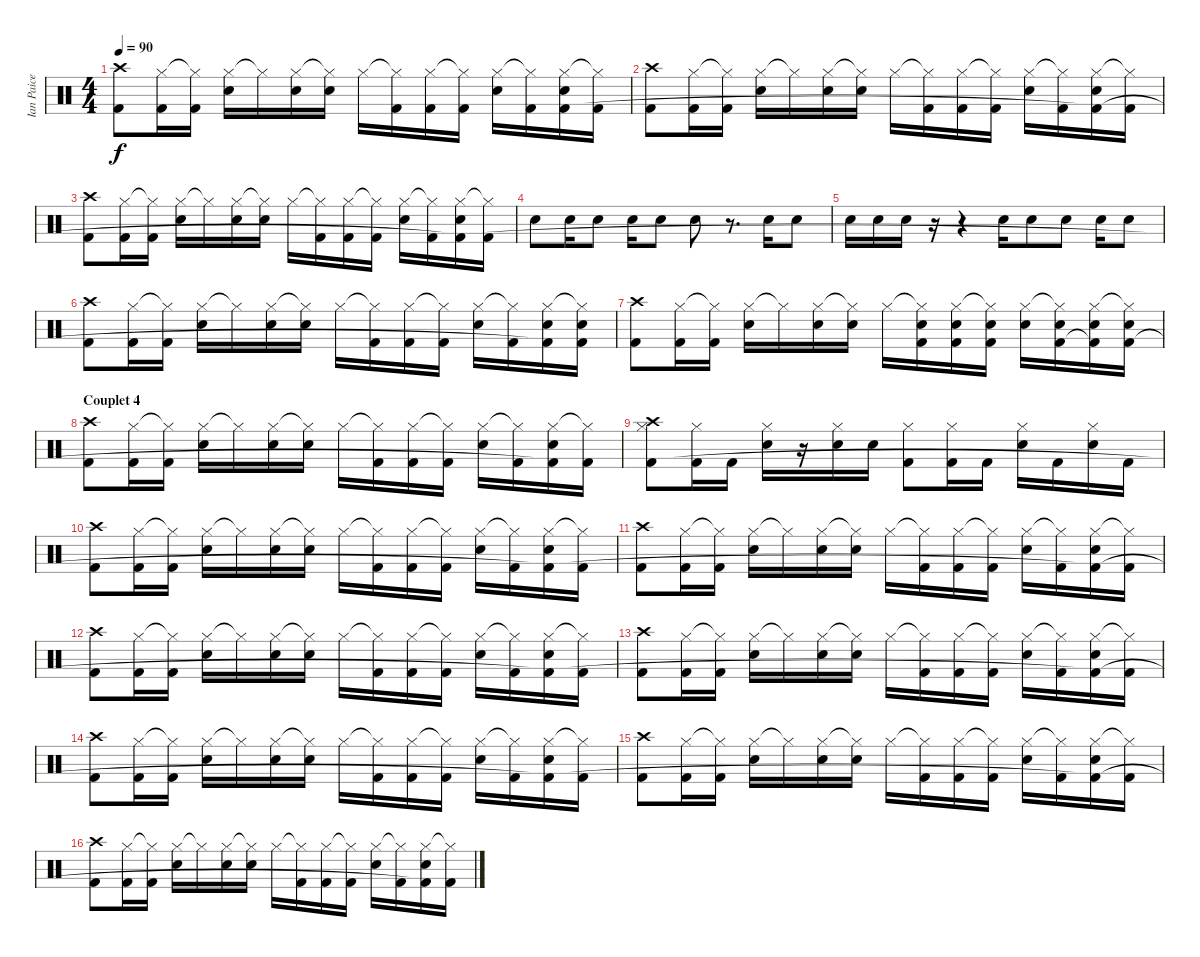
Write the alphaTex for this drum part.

\track ("Ian Paice" "Ian Paice") {instrument percussion}
\staff {score}
\articulation defaults
\ts (4 4)
\tempo 90
\clef neutral
\ks c
("Crash high (hit)" "Kick (hit) 2").8{dy f} ("Hi-Hat (closed)" "Kick (hit) 2").16 ("Hi-Hat (closed)"{t} "Kick (hit) 2").16 ("Hi-Hat (closed)" "Snare (hit) 2").16 "Hi-Hat (closed)"{t}.16 ("Hi-Hat (closed)" "Snare (hit) 2").16 ("Hi-Hat (closed)"{t} "Snare (hit) 2").16 "Hi-Hat (closed)".16 ("Hi-Hat (closed)"{t} "Kick (hit) 2").16 ("Hi-Hat (closed)" "Kick (hit) 2").16 ("Hi-Hat (closed)"{t} "Kick (hit) 2").16 ("Hi-Hat (closed)" "Snare (hit) 2").16 ("Hi-Hat (closed)"{t} "Kick (hit) 2").16 ("Hi-Hat (closed)" "Snare (hit) 2" "Kick (hit) 2"{t}).16 ("Hi-Hat (closed)"{t} "Kick (hit) 2").16 |
("Crash high (hit)" "Kick (hit) 2").8 ("Hi-Hat (closed)" "Kick (hit) 2").16 ("Hi-Hat (closed)"{t} "Kick (hit) 2").16 ("Hi-Hat (closed)" "Snare (hit) 2").16 "Hi-Hat (closed)"{t}.16 ("Hi-Hat (closed)" "Snare (hit) 2").16 ("Hi-Hat (closed)"{t} "Snare (hit) 2").16 "Hi-Hat (closed)".16 ("Hi-Hat (closed)"{t} "Kick (hit) 2").16 ("Hi-Hat (closed)" "Kick (hit) 2").16 ("Hi-Hat (closed)"{t} "Kick (hit) 2").16 ("Hi-Hat (closed)" "Snare (hit) 2").16 ("Hi-Hat (closed)"{t} "Kick (hit) 2").16 ("Hi-Hat (closed)" "Snare (hit) 2" "Kick (hit) 2"{t}).16 ("Hi-Hat (closed)"{t} "Kick (hit) 2").16 |
("Crash high (hit)" "Kick (hit) 2").8 ("Hi-Hat (closed)" "Kick (hit) 2").16 ("Hi-Hat (closed)"{t} "Kick (hit) 2").16 ("Hi-Hat (closed)" "Snare (hit) 2").16 "Hi-Hat (closed)"{t}.16 ("Hi-Hat (closed)" "Snare (hit) 2").16 ("Hi-Hat (closed)"{t} "Snare (hit) 2").16 "Hi-Hat (closed)".16 ("Hi-Hat (closed)"{t} "Kick (hit) 2").16 ("Hi-Hat (closed)" "Kick (hit) 2").16 ("Hi-Hat (closed)"{t} "Kick (hit) 2").16 ("Hi-Hat (closed)" "Snare (hit) 2").16 ("Hi-Hat (closed)"{t} "Kick (hit) 2").16 ("Hi-Hat (closed)" "Snare (hit) 2" "Kick (hit) 2"{t}).16 ("Hi-Hat (closed)"{t} "Kick (hit) 2").16 |
"Snare (hit) 2".8 "Snare (hit) 2".16 "Snare (hit) 2".8 "Snare (hit) 2".16 "Snare (hit) 2".8 "Snare (hit) 2".8 r.8{d} "Snare (hit) 2".16 "Snare (hit) 2".8 |
"Snare (hit) 2".16 "Snare (hit) 2".16 "Snare (hit) 2".16 r.16 r.4 "Snare (hit) 2".16 "Snare (hit) 2".8 "Snare (hit) 2".8 "Snare (hit) 2".16 "Snare (hit) 2".8 |
("Crash high (hit)" "Kick (hit) 2").8 ("Hi-Hat (closed)" "Kick (hit) 2").16 ("Hi-Hat (closed)"{t} "Kick (hit) 2").16 ("Hi-Hat (closed)" "Snare (hit) 2").16 "Hi-Hat (closed)"{t}.16 ("Hi-Hat (closed)" "Snare (hit) 2").16 ("Hi-Hat (closed)"{t} "Snare (hit) 2").16 "Hi-Hat (closed)".16 ("Hi-Hat (closed)"{t} "Kick (hit) 2").16 ("Hi-Hat (closed)" "Kick (hit) 2").16 ("Hi-Hat (closed)"{t} "Kick (hit) 2").16 ("Hi-Hat (closed)" "Snare (hit) 2").16 ("Hi-Hat (closed)"{t} "Kick (hit) 2").16 ("Hi-Hat (closed)" "Snare (hit) 2" "Kick (hit) 2"{t}).16 ("Hi-Hat (closed)"{t} "Snare (hit) 2" "Kick (hit) 2").16 |
("Crash high (hit)" "Kick (hit) 2").8 ("Hi-Hat (closed)" "Kick (hit) 2").16 ("Hi-Hat (closed)"{t} "Kick (hit) 2").16 ("Hi-Hat (closed)" "Snare (hit) 2").16 "Hi-Hat (closed)"{t}.16 ("Hi-Hat (closed)" "Snare (hit) 2").16 ("Hi-Hat (closed)"{t} "Snare (hit) 2").16 "Hi-Hat (closed)".16 ("Hi-Hat (closed)"{t} "Snare (hit) 2" "Kick (hit) 2").16 ("Hi-Hat (closed)" "Snare (hit) 2" "Kick (hit) 2").16 ("Hi-Hat (closed)"{t} "Snare (hit) 2" "Kick (hit) 2").16 ("Hi-Hat (closed)" "Snare (hit) 2").16 ("Hi-Hat (closed)"{t} "Snare (hit) 2" "Kick (hit) 2").16 ("Hi-Hat (closed)" "Snare (hit) 2" "Kick (hit) 2"{t}).16 ("Hi-Hat (closed)"{t} "Snare (hit) 2" "Kick (hit) 2").16 |
\section ("" "Couplet 4 ")
("Crash high (hit)" "Kick (hit) 2").8 ("Hi-Hat (closed)" "Kick (hit) 2").16 ("Hi-Hat (closed)"{t} "Kick (hit) 2").16 ("Hi-Hat (closed)" "Snare (hit) 2").16 "Hi-Hat (closed)"{t}.16 ("Hi-Hat (closed)" "Snare (hit) 2").16 ("Hi-Hat (closed)"{t} "Snare (hit) 2").16 "Hi-Hat (closed)".16 ("Hi-Hat (closed)"{t} "Kick (hit) 2").16 ("Hi-Hat (closed)" "Kick (hit) 2").16 ("Hi-Hat (closed)"{t} "Kick (hit) 2").16 ("Hi-Hat (closed)" "Snare (hit) 2").16 ("Hi-Hat (closed)"{t} "Kick (hit) 2").16 ("Hi-Hat (closed)" "Snare (hit) 2" "Kick (hit) 2"{t}).16 ("Hi-Hat (closed)"{t} "Kick (hit) 2").16 |
("Hi-Hat (closed)" "Crash high (hit)" "Kick (hit) 2").8 ("Hi-Hat (closed)" "Kick (hit) 2").16 "Kick (hit) 2".16 ("Hi-Hat (closed)" "Snare (hit) 2").16 r.16 ("Hi-Hat (closed)" "Snare (hit) 2").16 "Snare (hit) 2".16 ("Hi-Hat (closed)" "Kick (hit) 2").8 ("Hi-Hat (closed)" "Kick (hit) 2").16 "Kick (hit) 2".16 ("Hi-Hat (closed)" "Snare (hit) 2").16 "Kick (hit) 2".16 ("Hi-Hat (closed)" "Snare (hit) 2").16 "Kick (hit) 2".16 |
("Crash high (hit)" "Kick (hit) 2").8 ("Hi-Hat (closed)" "Kick (hit) 2").16 ("Hi-Hat (closed)"{t} "Kick (hit) 2").16 ("Hi-Hat (closed)" "Snare (hit) 2").16 "Hi-Hat (closed)"{t}.16 ("Hi-Hat (closed)" "Snare (hit) 2").16 ("Hi-Hat (closed)"{t} "Snare (hit) 2").16 "Hi-Hat (closed)".16 ("Hi-Hat (closed)"{t} "Kick (hit) 2").16 ("Hi-Hat (closed)" "Kick (hit) 2").16 ("Hi-Hat (closed)"{t} "Kick (hit) 2").16 ("Hi-Hat (closed)" "Snare (hit) 2").16 ("Hi-Hat (closed)"{t} "Kick (hit) 2").16 ("Hi-Hat (closed)" "Snare (hit) 2" "Kick (hit) 2"{t}).16 ("Hi-Hat (closed)"{t} "Kick (hit) 2").16 |
("Crash high (hit)" "Kick (hit) 2").8 ("Hi-Hat (closed)" "Kick (hit) 2").16 ("Hi-Hat (closed)"{t} "Kick (hit) 2").16 ("Hi-Hat (closed)" "Snare (hit) 2").16 "Hi-Hat (closed)"{t}.16 ("Hi-Hat (closed)" "Snare (hit) 2").16 ("Hi-Hat (closed)"{t} "Snare (hit) 2").16 "Hi-Hat (closed)".16 ("Hi-Hat (closed)"{t} "Kick (hit) 2").16 ("Hi-Hat (closed)" "Kick (hit) 2").16 ("Hi-Hat (closed)"{t} "Kick (hit) 2").16 ("Hi-Hat (closed)" "Snare (hit) 2").16 ("Hi-Hat (closed)"{t} "Kick (hit) 2").16 ("Hi-Hat (closed)" "Snare (hit) 2" "Kick (hit) 2"{t}).16 ("Hi-Hat (closed)"{t} "Kick (hit) 2").16 |
("Crash high (hit)" "Kick (hit) 2").8 ("Hi-Hat (closed)" "Kick (hit) 2").16 ("Hi-Hat (closed)"{t} "Kick (hit) 2").16 ("Hi-Hat (closed)" "Snare (hit) 2").16 "Hi-Hat (closed)"{t}.16 ("Hi-Hat (closed)" "Snare (hit) 2").16 ("Hi-Hat (closed)"{t} "Snare (hit) 2").16 "Hi-Hat (closed)".16 ("Hi-Hat (closed)"{t} "Kick (hit) 2").16 ("Hi-Hat (closed)" "Kick (hit) 2").16 ("Hi-Hat (closed)"{t} "Kick (hit) 2").16 ("Hi-Hat (closed)" "Snare (hit) 2").16 ("Hi-Hat (closed)"{t} "Kick (hit) 2").16 ("Hi-Hat (closed)" "Snare (hit) 2" "Kick (hit) 2"{t}).16 ("Hi-Hat (closed)"{t} "Kick (hit) 2").16 |
("Crash high (hit)" "Kick (hit) 2").8 ("Hi-Hat (closed)" "Kick (hit) 2").16 ("Hi-Hat (closed)"{t} "Kick (hit) 2").16 ("Hi-Hat (closed)" "Snare (hit) 2").16 "Hi-Hat (closed)"{t}.16 ("Hi-Hat (closed)" "Snare (hit) 2").16 ("Hi-Hat (closed)"{t} "Snare (hit) 2").16 "Hi-Hat (closed)".16 ("Hi-Hat (closed)"{t} "Kick (hit) 2").16 ("Hi-Hat (closed)" "Kick (hit) 2").16 ("Hi-Hat (closed)"{t} "Kick (hit) 2").16 ("Hi-Hat (closed)" "Snare (hit) 2").16 ("Hi-Hat (closed)"{t} "Kick (hit) 2").16 ("Hi-Hat (closed)" "Snare (hit) 2" "Kick (hit) 2"{t}).16 ("Hi-Hat (closed)"{t} "Kick (hit) 2").16 |
("Crash high (hit)" "Kick (hit) 2").8 ("Hi-Hat (closed)" "Kick (hit) 2").16 ("Hi-Hat (closed)"{t} "Kick (hit) 2").16 ("Hi-Hat (closed)" "Snare (hit) 2").16 "Hi-Hat (closed)"{t}.16 ("Hi-Hat (closed)" "Snare (hit) 2").16 ("Hi-Hat (closed)"{t} "Snare (hit) 2").16 "Hi-Hat (closed)".16 ("Hi-Hat (closed)"{t} "Kick (hit) 2").16 ("Hi-Hat (closed)" "Kick (hit) 2").16 ("Hi-Hat (closed)"{t} "Kick (hit) 2").16 ("Hi-Hat (closed)" "Snare (hit) 2").16 ("Hi-Hat (closed)"{t} "Kick (hit) 2").16 ("Hi-Hat (closed)" "Snare (hit) 2" "Kick (hit) 2"{t}).16 ("Hi-Hat (closed)"{t} "Kick (hit) 2").16 |
("Crash high (hit)" "Kick (hit) 2").8 ("Hi-Hat (closed)" "Kick (hit) 2").16 ("Hi-Hat (closed)"{t} "Kick (hit) 2").16 ("Hi-Hat (closed)" "Snare (hit) 2").16 "Hi-Hat (closed)"{t}.16 ("Hi-Hat (closed)" "Snare (hit) 2").16 ("Hi-Hat (closed)"{t} "Snare (hit) 2").16 "Hi-Hat (closed)".16 ("Hi-Hat (closed)"{t} "Kick (hit) 2").16 ("Hi-Hat (closed)" "Kick (hit) 2").16 ("Hi-Hat (closed)"{t} "Kick (hit) 2").16 ("Hi-Hat (closed)" "Snare (hit) 2").16 ("Hi-Hat (closed)"{t} "Kick (hit) 2").16 ("Hi-Hat (closed)" "Snare (hit) 2" "Kick (hit) 2"{t}).16 ("Hi-Hat (closed)"{t} "Kick (hit) 2").16 |
("Crash high (hit)" "Kick (hit) 2").8 ("Hi-Hat (closed)" "Kick (hit) 2").16 ("Hi-Hat (closed)"{t} "Kick (hit) 2").16 ("Hi-Hat (closed)" "Snare (hit) 2").16 "Hi-Hat (closed)"{t}.16 ("Hi-Hat (closed)" "Snare (hit) 2").16 ("Hi-Hat (closed)"{t} "Snare (hit) 2").16 "Hi-Hat (closed)".16 ("Hi-Hat (closed)"{t} "Kick (hit) 2").16 ("Hi-Hat (closed)" "Kick (hit) 2").16 ("Hi-Hat (closed)"{t} "Kick (hit) 2").16 ("Hi-Hat (closed)" "Snare (hit) 2").16 ("Hi-Hat (closed)"{t} "Kick (hit) 2").16 ("Hi-Hat (closed)" "Snare (hit) 2" "Kick (hit) 2"{t}).16 ("Hi-Hat (closed)"{t} "Kick (hit) 2").16
